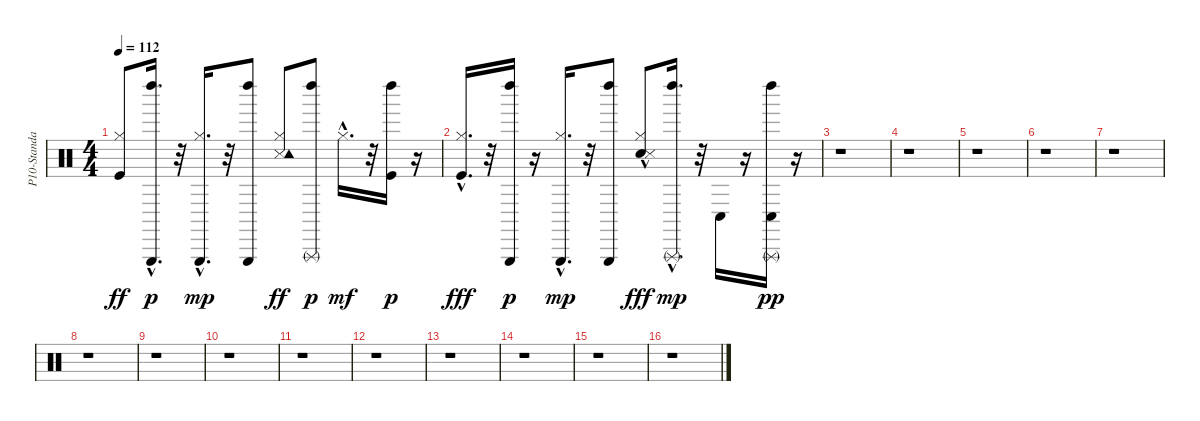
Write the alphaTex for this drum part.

\track ("P10-Standard Kit" "P10-Standa") {instrument percussion}
\staff {score}
\articulation defaults
\ts (4 4)
\tempo 112
\clef neutral
\ks c
("Kick (hit)" "Hi-Hat (closed)").8{dy ff} ("Triangle (hit)"{hac} "Left Maraca (hit)").16{d dy p} r.32 ("Hi-Hat (closed)" "Triangle (hit)"{hac}).16{d dy mp} r.32 ("Left Maraca (hit)" "Triangle (hit)").8 ("Snare (side stick) 3" "Hi-Hat (closed)" "Tambourine (hit)").8{dy ff} ("Triangle (rnute)" "Left Maraca (hit)").8{dy p} "Hi-Hat (closed)"{hac}.16{d dy mf} r.32 ("Kick (hit)" "Left Maraca (hit)").16{dy p} r.16 |
("Kick (hit)"{hac} "Hi-Hat (closed)").16{d dy fff} r.32 ("Triangle (hit)" "Left Maraca (hit)").16{dy p} r.16 ("Hi-Hat (closed)" "Triangle (hit)"{hac}).16{d dy mp} r.32 ("Triangle (hit)" "Left Maraca (hit)").8 ("Snare (hit)" "Hi-Hat (closed)" "Snare (side stick) 3"{hac}).8{dy fff} ("Triangle (rnute)"{hac} "Left Maraca (hit)").16{d dy mp} r.32 "Conga low (hit)".16 r.16 ("Triangle (rnute)" "Left Maraca (hit)" "Conga low (hit)").16{dy pp} r.16 |
r.1 |
r.1 |
r.1 |
r.1 |
r.1 |
r.1 |
r.1 |
r.1 |
r.1 |
r.1 |
r.1 |
r.1 |
r.1 |
r.1
